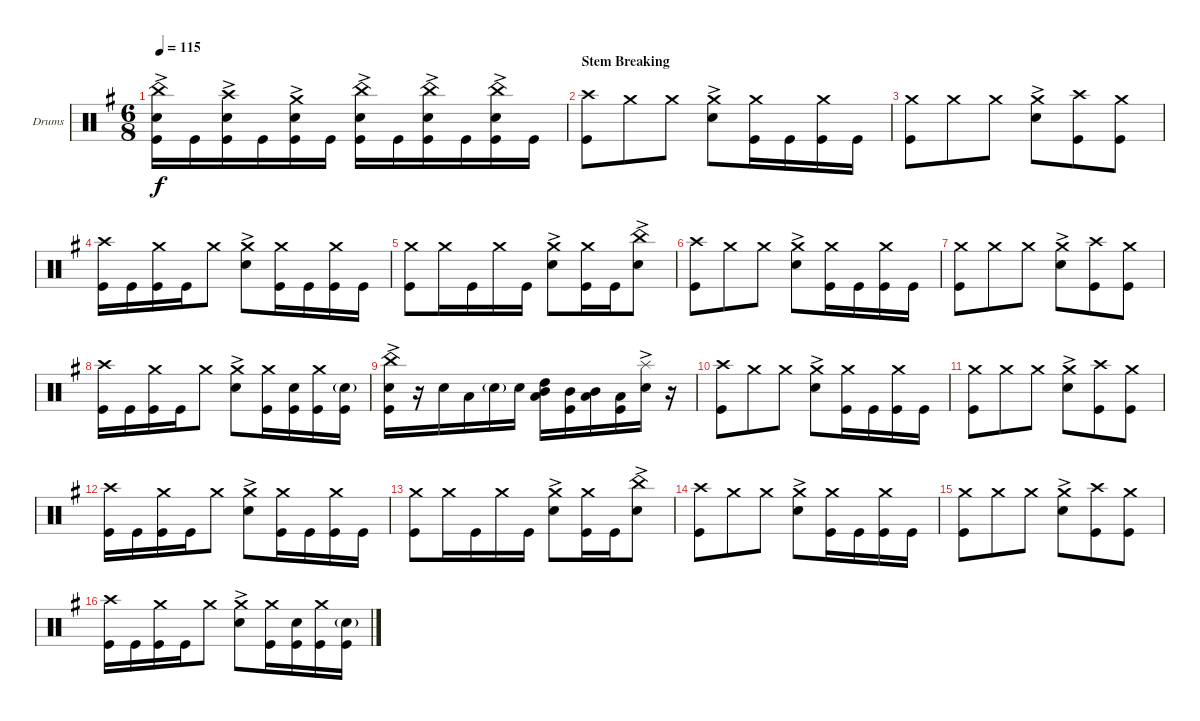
\bracketExtendMode groupsimilarinstruments
\firstSystemTrackNameOrientation horizontal
\otherSystemsTrackNameOrientation horizontal
\track ("Drumkit" "Drums") {instrument percussion}
\staff {score}
\articulation defaults
\ts (6 8)
\tempo 115
\clef neutral
\ks eminor
("Kick (hit)" "Snare (hit) 2"{ac} "China (hit)").16{dy f} "Kick (hit)".16 ("Kick (hit)" "Snare (hit) 2"{ac} "Crash high (hit)").16 "Kick (hit)".16 ("Kick (hit)" "Snare (hit) 2"{ac} "Crash medium (hit)").16 "Kick (hit)".16 ("Kick (hit)" "Snare (hit) 2"{ac} "China (hit)").16 "Kick (hit)".16 ("Kick (hit)" "Snare (hit) 2"{ac} "China (hit)").16 "Kick (hit)".16 ("Kick (hit)" "Snare (hit) 2"{ac} "China (hit)").16 "Kick (hit)".16 |
\section ("" "Stem Breaking")
("Kick (hit)" "Crash high (hit)").8 "Crash medium (hit)".8 "Crash medium (hit)".8 ("Crash medium (hit)" "Snare (hit) 2"{ac}).8 ("Kick (hit)" "Crash medium (hit)").16 "Kick (hit)".16 ("Kick (hit)" "Crash medium (hit)").16 "Kick (hit)".16 |
("Kick (hit)" "Crash medium (hit)").8 "Crash medium (hit)".8 "Crash medium (hit)".8 ("Snare (hit) 2"{ac} "Crash medium (hit)").8 ("Kick (hit)" "Crash high (hit)").8 ("Kick (hit)" "Crash medium (hit)").8 |
("Kick (hit)" "Crash high (hit)").16 "Kick (hit)".16 ("Crash medium (hit)" "Kick (hit)").16 "Kick (hit)".16 "Crash medium (hit)".8 ("Crash medium (hit)" "Snare (hit) 2"{ac}).8 ("Kick (hit)" "Crash medium (hit)").16 "Kick (hit)".16 ("Kick (hit)" "Crash medium (hit)").16 "Kick (hit)".16 |
("Kick (hit)" "Crash medium (hit)").8 "Crash medium (hit)".16 "Kick (hit)".16 "Crash medium (hit)".16 "Kick (hit)".16 ("Snare (hit) 2"{ac} "Crash medium (hit)").8 ("Kick (hit)" "Crash medium (hit)").16 "Kick (hit)".16 ("Snare (hit) 2"{ac} "China (hit)").8 |
("Kick (hit)" "Crash high (hit)").8 "Crash medium (hit)".8 "Crash medium (hit)".8 ("Crash medium (hit)" "Snare (hit) 2"{ac}).8 ("Kick (hit)" "Crash medium (hit)").16 "Kick (hit)".16 ("Kick (hit)" "Crash medium (hit)").16 "Kick (hit)".16 |
("Kick (hit)" "Crash medium (hit)").8 "Crash medium (hit)".8 "Crash medium (hit)".8 ("Snare (hit) 2"{ac} "Crash medium (hit)").8 ("Kick (hit)" "Crash high (hit)").8 ("Kick (hit)" "Crash medium (hit)").8 |
("Kick (hit)" "Crash high (hit)").16 "Kick (hit)".16 ("Crash medium (hit)" "Kick (hit)").16 "Kick (hit)".16 "Crash medium (hit)".8 ("Crash medium (hit)" "Snare (hit) 2"{ac}).8 ("Kick (hit)" "Crash medium (hit)").16 ("Kick (hit)" "Snare (hit) 2").16 ("Kick (hit)" "Crash medium (hit)").16 ("Kick (hit)" "Snare (hit) 2"{g}).16 |
("Kick (hit)" "Snare (hit) 2"{ac} "China (hit)").16 r.16 "Snare (hit) 2".16 "Low Tom (hit)".16 "Snare (hit) 2"{g}.16 "Snare (hit) 2".16 ("High Tom (hit)" "Mid Tom (hit)" "Low Tom (hit)").16 ("Mid Tom (hit)" "Kick (hit)").16 ("Low Tom (hit)" "Mid Tom (hit)").16 ("Low Tom (hit)" "Kick (hit)").16 ("Splash (hit)" "Snare (hit) 2"{ac}).16 r.16 |
("Kick (hit)" "Crash high (hit)").8 "Crash medium (hit)".8 "Crash medium (hit)".8 ("Crash medium (hit)" "Snare (hit) 2"{ac}).8 ("Kick (hit)" "Crash medium (hit)").16 "Kick (hit)".16 ("Kick (hit)" "Crash medium (hit)").16 "Kick (hit)".16 |
("Kick (hit)" "Crash medium (hit)").8 "Crash medium (hit)".8 "Crash medium (hit)".8 ("Snare (hit) 2"{ac} "Crash medium (hit)").8 ("Kick (hit)" "Crash high (hit)").8 ("Kick (hit)" "Crash medium (hit)").8 |
("Kick (hit)" "Crash high (hit)").16 "Kick (hit)".16 ("Crash medium (hit)" "Kick (hit)").16 "Kick (hit)".16 "Crash medium (hit)".8 ("Crash medium (hit)" "Snare (hit) 2"{ac}).8 ("Kick (hit)" "Crash medium (hit)").16 "Kick (hit)".16 ("Kick (hit)" "Crash medium (hit)").16 "Kick (hit)".16 |
("Kick (hit)" "Crash medium (hit)").8 "Crash medium (hit)".16 "Kick (hit)".16 "Crash medium (hit)".16 "Kick (hit)".16 ("Snare (hit) 2"{ac} "Crash medium (hit)").8 ("Kick (hit)" "Crash medium (hit)").16 "Kick (hit)".16 ("Snare (hit) 2"{ac} "China (hit)").8 |
("Kick (hit)" "Crash high (hit)").8 "Crash medium (hit)".8 "Crash medium (hit)".8 ("Crash medium (hit)" "Snare (hit) 2"{ac}).8 ("Kick (hit)" "Crash medium (hit)").16 "Kick (hit)".16 ("Kick (hit)" "Crash medium (hit)").16 "Kick (hit)".16 |
("Kick (hit)" "Crash medium (hit)").8 "Crash medium (hit)".8 "Crash medium (hit)".8 ("Snare (hit) 2"{ac} "Crash medium (hit)").8 ("Kick (hit)" "Crash high (hit)").8 ("Kick (hit)" "Crash medium (hit)").8 |
("Kick (hit)" "Crash high (hit)").16 "Kick (hit)".16 ("Crash medium (hit)" "Kick (hit)").16 "Kick (hit)".16 "Crash medium (hit)".8 ("Crash medium (hit)" "Snare (hit) 2"{ac}).8 ("Kick (hit)" "Crash medium (hit)").16 ("Kick (hit)" "Snare (hit) 2").16 ("Kick (hit)" "Crash medium (hit)").16 ("Kick (hit)" "Snare (hit) 2"{g}).16
